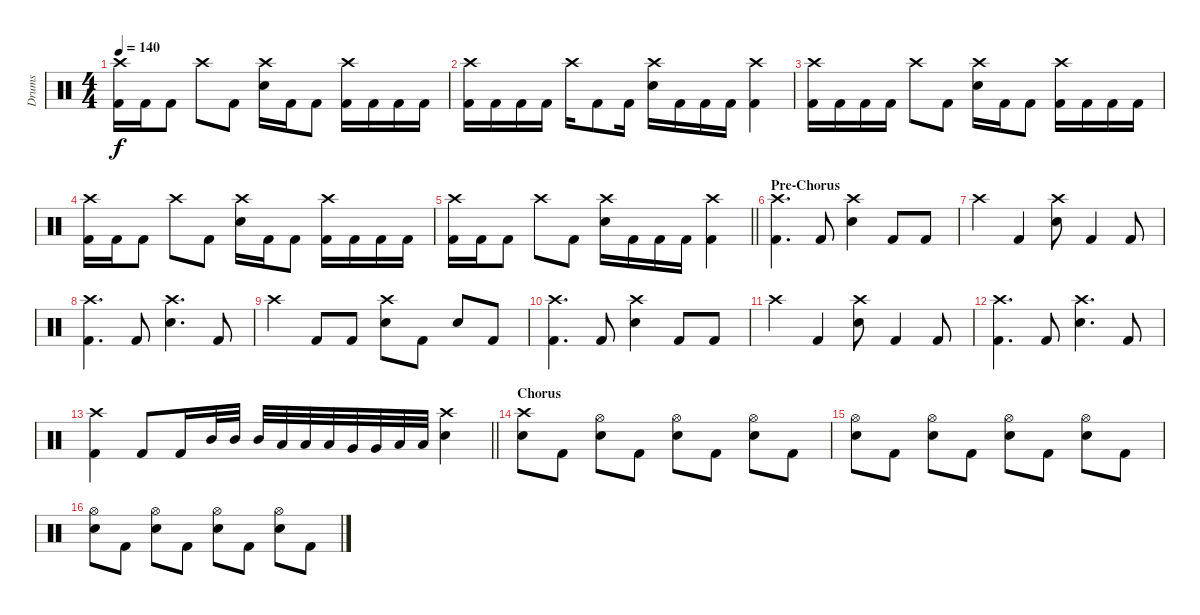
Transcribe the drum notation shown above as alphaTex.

\track ("Drums" "Drums") {instrument percussion}
\staff {score}
\articulation defaults
\ts (4 4)
\tempo 140
\clef neutral
\ks c
("Crash high (hit)" "Kick (hit) 2").16{dy f} "Kick (hit) 2".16 "Kick (hit) 2".8 "Crash high (hit)".8 "Kick (hit) 2".8 ("Crash high (hit)" "Electric Snare (hit)").16 "Kick (hit) 2".16 "Kick (hit) 2".8 ("Crash high (hit)" "Kick (hit) 2").16 "Kick (hit) 2".16 "Kick (hit) 2".16 "Kick (hit) 2".16 |
("Crash high (hit)" "Kick (hit) 2").16 "Kick (hit) 2".16 "Kick (hit) 2".16 "Kick (hit) 2".16 "Crash high (hit)".16 "Kick (hit) 2".8 "Kick (hit) 2".16 ("Crash high (hit)" "Electric Snare (hit)").16 "Kick (hit) 2".16 "Kick (hit) 2".16 "Kick (hit) 2".16 ("Crash high (hit)" "Kick (hit) 2").4 |
("Crash high (hit)" "Kick (hit) 2").16 "Kick (hit) 2".16 "Kick (hit) 2".16 "Kick (hit) 2".16 "Crash high (hit)".8 "Kick (hit) 2".8 ("Crash high (hit)" "Electric Snare (hit)").16 "Kick (hit) 2".16 "Kick (hit) 2".8 ("Crash high (hit)" "Kick (hit) 2").16 "Kick (hit) 2".16 "Kick (hit) 2".16 "Kick (hit) 2".16 |
("Crash high (hit)" "Kick (hit) 2").16 "Kick (hit) 2".16 "Kick (hit) 2".8 "Crash high (hit)".8 "Kick (hit) 2".8 ("Crash high (hit)" "Electric Snare (hit)").16 "Kick (hit) 2".16 "Kick (hit) 2".8 ("Crash high (hit)" "Kick (hit) 2").16 "Kick (hit) 2".16 "Kick (hit) 2".16 "Kick (hit) 2".16 |
\barLineRight lightlight
("Crash high (hit)" "Kick (hit) 2").16 "Kick (hit) 2".16 "Kick (hit) 2".8 "Crash high (hit)".8 "Kick (hit) 2".8 ("Crash high (hit)" "Electric Snare (hit)").16 "Kick (hit) 2".16 "Kick (hit) 2".16 "Kick (hit) 2".16 ("Crash high (hit)" "Kick (hit) 2").4 |
\section ("" "Pre-Chorus")
("Crash high (hit)" "Kick (hit) 2").4{d} "Kick (hit) 2".8 ("Crash high (hit)" "Electric Snare (hit)").4 "Kick (hit) 2".8 "Kick (hit) 2".8 |
"Crash high (hit)".4 "Kick (hit) 2".4 ("Crash high (hit)" "Electric Snare (hit)").8 "Kick (hit) 2".4 "Kick (hit) 2".8 |
("Crash high (hit)" "Kick (hit) 2").4{d} "Kick (hit) 2".8 ("Crash high (hit)" "Electric Snare (hit)").4{d} "Kick (hit) 2".8 |
"Crash high (hit)".4 "Kick (hit) 2".8 "Kick (hit) 2".8 ("Crash high (hit)" "Electric Snare (hit)").8 "Kick (hit) 2".8 "Electric Snare (hit)".8 "Kick (hit) 2".8 |
("Crash high (hit)" "Kick (hit) 2").4{d} "Kick (hit) 2".8 ("Crash high (hit)" "Electric Snare (hit)").4 "Kick (hit) 2".8 "Kick (hit) 2".8 |
"Crash high (hit)".4 "Kick (hit) 2".4 ("Crash high (hit)" "Electric Snare (hit)").8 "Kick (hit) 2".4 "Kick (hit) 2".8 |
("Crash high (hit)" "Kick (hit) 2").4{d} "Kick (hit) 2".8 ("Crash high (hit)" "Electric Snare (hit)").4{d} "Kick (hit) 2".8 |
\barLineRight lightlight
("Crash high (hit)" "Kick (hit) 2").4 "Kick (hit) 2".8 "Kick (hit) 2".16 "Mid Tom (hit)".32 "Mid Tom (hit)".32 "Mid Tom (hit)".32 "Low Tom (hit)".32 "Low Tom (hit)".32 "Low Tom (hit)".32 "Very Low Tom (hit)".32 "Very Low Tom (hit)".32 "Low Floor Tom (hit)".32 "Low Floor Tom (hit)".32 ("Crash high (hit)" "Electric Snare (hit)").4 |
\section ("" "Chorus")
("Crash high (hit)" "Electric Snare (hit)").8 "Kick (hit) 2".8 ("Hi-Hat (open)" "Electric Snare (hit)").8 "Kick (hit) 2".8 ("Hi-Hat (open)" "Electric Snare (hit)").8 "Kick (hit) 2".8 ("Hi-Hat (open)" "Electric Snare (hit)").8 "Kick (hit) 2".8 |
("Hi-Hat (open)" "Electric Snare (hit)").8 "Kick (hit) 2".8 ("Hi-Hat (open)" "Electric Snare (hit)").8 "Kick (hit) 2".8 ("Hi-Hat (open)" "Electric Snare (hit)").8 "Kick (hit) 2".8 ("Hi-Hat (open)" "Electric Snare (hit)").8 "Kick (hit) 2".8 |
("Hi-Hat (open)" "Electric Snare (hit)").8 "Kick (hit) 2".8 ("Hi-Hat (open)" "Electric Snare (hit)").8 "Kick (hit) 2".8 ("Hi-Hat (open)" "Electric Snare (hit)").8 "Kick (hit) 2".8 ("Hi-Hat (open)" "Electric Snare (hit)").8 "Kick (hit) 2".8
